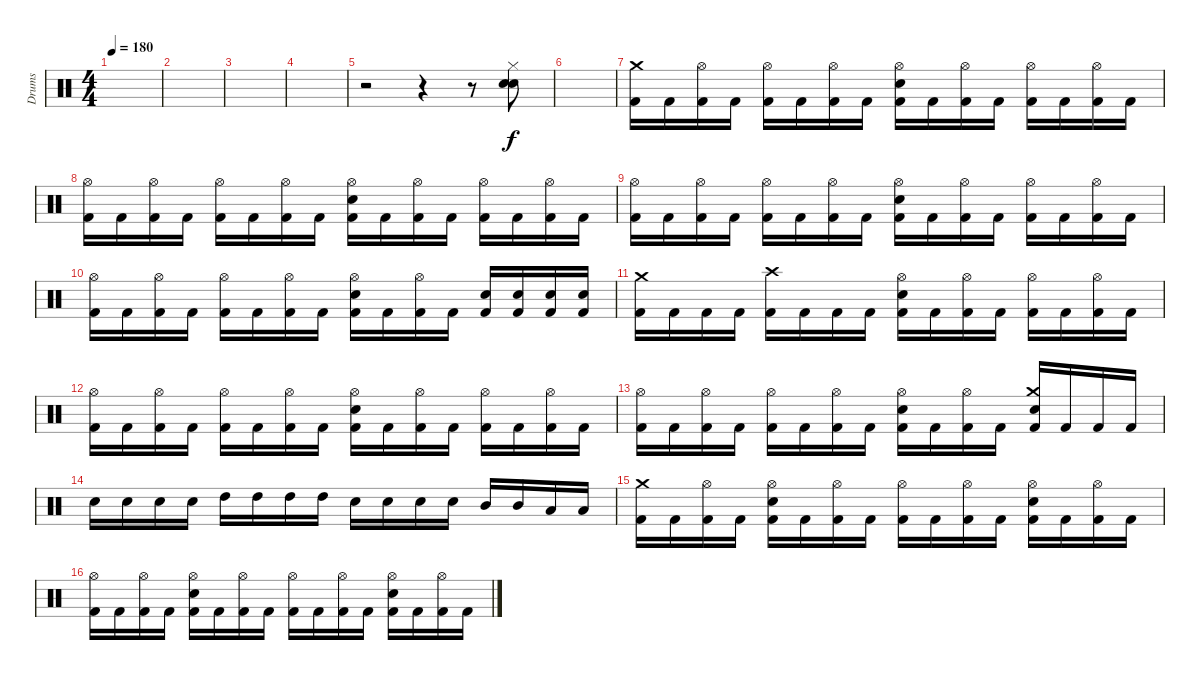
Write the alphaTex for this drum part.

\track ("Drums" "Drums") {instrument percussion}
\staff {score}
\articulation defaults
\ts (4 4)
\tempo 180
\clef neutral
\ks c
|
|
|
|
r.2 r.4 r.8 ("Hi-Hat (closed)" "Electric Snare (hit)" "Snare (hit) 2").8 |
|
("Crash medium (hit)" "Kick (hit) 2").16 "Kick (hit) 2".16 ("Hi-Hat (open)" "Kick (hit) 2").16 "Kick (hit) 2".16 ("Hi-Hat (open)" "Kick (hit) 2").16 "Kick (hit) 2".16 ("Hi-Hat (open)" "Kick (hit) 2").16 "Kick (hit) 2".16 ("Hi-Hat (open)" "Electric Snare (hit)" "Kick (hit) 2").16 "Kick (hit) 2".16 ("Hi-Hat (open)" "Kick (hit) 2").16 "Kick (hit) 2".16 ("Hi-Hat (open)" "Kick (hit) 2").16 "Kick (hit) 2".16 ("Hi-Hat (open)" "Kick (hit) 2").16 "Kick (hit) 2".16 |
("Hi-Hat (open)" "Kick (hit) 2").16 "Kick (hit) 2".16 ("Hi-Hat (open)" "Kick (hit) 2").16 "Kick (hit) 2".16 ("Hi-Hat (open)" "Kick (hit) 2").16 "Kick (hit) 2".16 ("Hi-Hat (open)" "Kick (hit) 2").16 "Kick (hit) 2".16 ("Hi-Hat (open)" "Electric Snare (hit)" "Kick (hit) 2").16 "Kick (hit) 2".16 ("Hi-Hat (open)" "Kick (hit) 2").16 "Kick (hit) 2".16 ("Hi-Hat (open)" "Kick (hit) 2").16 "Kick (hit) 2".16 ("Hi-Hat (open)" "Kick (hit) 2").16 "Kick (hit) 2".16 |
("Hi-Hat (open)" "Kick (hit) 2").16 "Kick (hit) 2".16 ("Hi-Hat (open)" "Kick (hit) 2").16 "Kick (hit) 2".16 ("Hi-Hat (open)" "Kick (hit) 2").16 "Kick (hit) 2".16 ("Hi-Hat (open)" "Kick (hit) 2").16 "Kick (hit) 2".16 ("Hi-Hat (open)" "Electric Snare (hit)" "Kick (hit) 2").16 "Kick (hit) 2".16 ("Hi-Hat (open)" "Kick (hit) 2").16 "Kick (hit) 2".16 ("Hi-Hat (open)" "Kick (hit) 2").16 "Kick (hit) 2".16 ("Hi-Hat (open)" "Kick (hit) 2").16 "Kick (hit) 2".16 |
("Hi-Hat (open)" "Kick (hit) 2").16 "Kick (hit) 2".16 ("Hi-Hat (open)" "Kick (hit) 2").16 "Kick (hit) 2".16 ("Hi-Hat (open)" "Kick (hit) 2").16 "Kick (hit) 2".16 ("Hi-Hat (open)" "Kick (hit) 2").16 "Kick (hit) 2".16 ("Hi-Hat (open)" "Electric Snare (hit)" "Kick (hit) 2").16 "Kick (hit) 2".16 ("Hi-Hat (open)" "Kick (hit) 2").16 "Kick (hit) 2".16 ("Electric Snare (hit)" "Kick (hit) 2").16 ("Electric Snare (hit)" "Kick (hit) 2").16 ("Electric Snare (hit)" "Kick (hit) 2").16 ("Electric Snare (hit)" "Kick (hit) 2").16 |
("Crash medium (hit)" "Kick (hit) 2").16 "Kick (hit) 2".16 "Kick (hit) 2".16 "Kick (hit) 2".16 ("Crash high (hit)" "Kick (hit) 2").16 "Kick (hit) 2".16 "Kick (hit) 2".16 "Kick (hit) 2".16 ("Hi-Hat (open)" "Electric Snare (hit)" "Kick (hit) 2").16 "Kick (hit) 2".16 ("Hi-Hat (open)" "Kick (hit) 2").16 "Kick (hit) 2".16 ("Hi-Hat (open)" "Kick (hit) 2").16 "Kick (hit) 2".16 ("Hi-Hat (open)" "Kick (hit) 2").16 "Kick (hit) 2".16 |
("Hi-Hat (open)" "Kick (hit) 2").16 "Kick (hit) 2".16 ("Hi-Hat (open)" "Kick (hit) 2").16 "Kick (hit) 2".16 ("Hi-Hat (open)" "Kick (hit) 2").16 "Kick (hit) 2".16 ("Hi-Hat (open)" "Kick (hit) 2").16 "Kick (hit) 2".16 ("Hi-Hat (open)" "Electric Snare (hit)" "Kick (hit) 2").16 "Kick (hit) 2".16 ("Hi-Hat (open)" "Kick (hit) 2").16 "Kick (hit) 2".16 ("Hi-Hat (open)" "Kick (hit) 2").16 "Kick (hit) 2".16 ("Hi-Hat (open)" "Kick (hit) 2").16 "Kick (hit) 2".16 |
("Hi-Hat (open)" "Kick (hit) 2").16 "Kick (hit) 2".16 ("Hi-Hat (open)" "Kick (hit) 2").16 "Kick (hit) 2".16 ("Hi-Hat (open)" "Kick (hit) 2").16 "Kick (hit) 2".16 ("Hi-Hat (open)" "Kick (hit) 2").16 "Kick (hit) 2".16 ("Hi-Hat (open)" "Electric Snare (hit)" "Kick (hit) 2").16 "Kick (hit) 2".16 ("Hi-Hat (open)" "Kick (hit) 2").16 "Kick (hit) 2".16 ("Crash medium (hit)" "Electric Snare (hit)" "Kick (hit) 2").16 "Kick (hit) 2".16 "Kick (hit) 2".16 "Kick (hit) 2".16 |
"Electric Snare (hit)".16 "Electric Snare (hit)".16 "Electric Snare (hit)".16 "Electric Snare (hit)".16 "High Tom (hit)".16 "High Tom (hit)".16 "High Tom (hit)".16 "High Tom (hit)".16 "Electric Snare (hit)".16 "Electric Snare (hit)".16 "Electric Snare (hit)".16 "Electric Snare (hit)".16 "Mid Tom (hit)".16 "Mid Tom (hit)".16 "Low Tom (hit)".16 "Low Tom (hit)".16 |
("Crash medium (hit)" "Kick (hit) 2").16 "Kick (hit) 2".16 ("Hi-Hat (open)" "Kick (hit) 2").16 "Kick (hit) 2".16 ("Hi-Hat (open)" "Electric Snare (hit)" "Kick (hit) 2").16 "Kick (hit) 2".16 ("Hi-Hat (open)" "Kick (hit) 2").16 "Kick (hit) 2".16 ("Hi-Hat (open)" "Kick (hit) 2").16 "Kick (hit) 2".16 ("Hi-Hat (open)" "Kick (hit) 2").16 "Kick (hit) 2".16 ("Hi-Hat (open)" "Electric Snare (hit)" "Kick (hit) 2").16 "Kick (hit) 2".16 ("Hi-Hat (open)" "Kick (hit) 2").16 "Kick (hit) 2".16 |
("Hi-Hat (open)" "Kick (hit) 2").16 "Kick (hit) 2".16 ("Hi-Hat (open)" "Kick (hit) 2").16 "Kick (hit) 2".16 ("Hi-Hat (open)" "Electric Snare (hit)" "Kick (hit) 2").16 "Kick (hit) 2".16 ("Hi-Hat (open)" "Kick (hit) 2").16 "Kick (hit) 2".16 ("Hi-Hat (open)" "Kick (hit) 2").16 "Kick (hit) 2".16 ("Hi-Hat (open)" "Kick (hit) 2").16 "Kick (hit) 2".16 ("Hi-Hat (open)" "Electric Snare (hit)" "Kick (hit) 2").16 "Kick (hit) 2".16 ("Hi-Hat (open)" "Kick (hit) 2").16 "Kick (hit) 2".16
